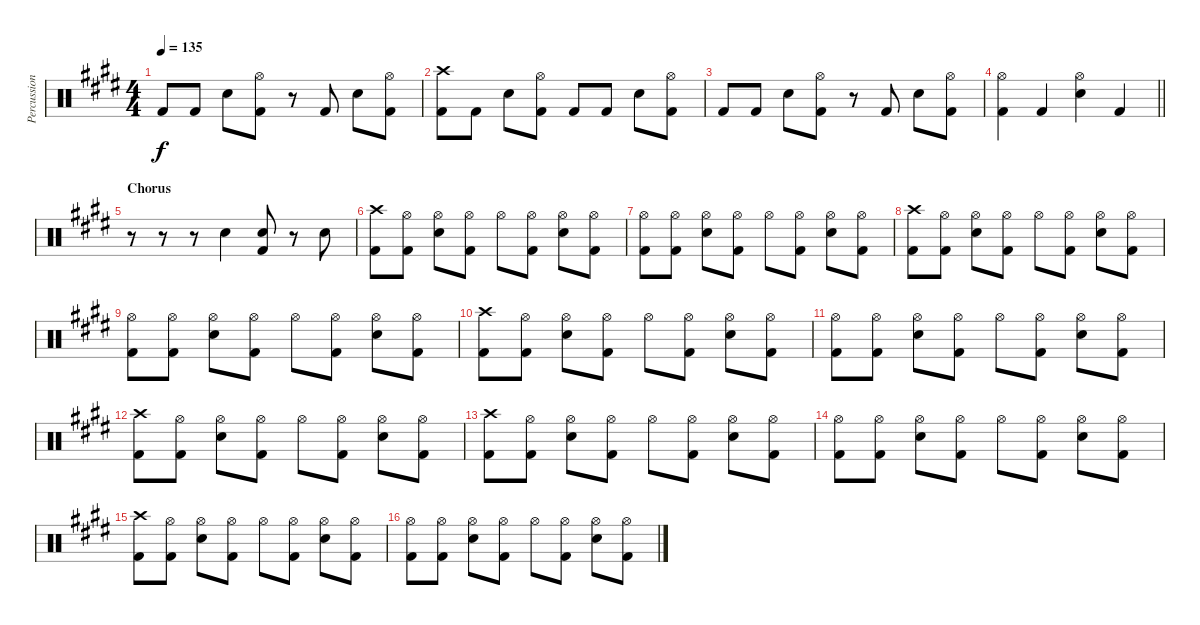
\track ("Percussion" "Percussion") {instrument percussion}
\staff {score}
\articulation defaults
\ts (4 4)
\tempo 135
\clef neutral
\ks e "Kick (hit) 2".8{dy f} "Kick (hit) 2".8 "Electric Snare (hit)".8
("Hi-Hat (open)" "Kick (hit) 2").8 r.8 "Kick (hit) 2".8 "Electric Snare (hit)".8 ("Hi-Hat (open)" "Kick (hit) 2").8 |
("Crash high (hit)" "Kick (hit) 2").8 "Kick (hit) 2".8 "Electric Snare (hit)".8 ("Hi-Hat (open)" "Kick (hit) 2").8 "Kick (hit) 2".8 "Kick (hit) 2".8 "Electric Snare (hit)".8 ("Hi-Hat (open)" "Kick (hit) 2").8 |
"Kick (hit) 2".8 "Kick (hit) 2".8 "Electric Snare (hit)".8 ("Hi-Hat (open)" "Kick (hit) 2").8 r.8 "Kick (hit) 2".8 "Electric Snare (hit)".8 ("Hi-Hat (open)" "Kick (hit) 2").8 |
\barLineRight lightlight
("Hi-Hat (open)" "Kick (hit) 2").4 "Kick (hit) 2".4 ("Hi-Hat (open)" "Electric Snare (hit)").4 "Kick (hit) 2".4 |
\section ("" "Chorus")
r.8 r.8 r.8 "Electric Snare (hit)".4 ("Electric Snare (hit)" "Kick (hit) 2").8 r.8 "Electric Snare (hit)".8 |
("Crash high (hit)" "Kick (hit) 2").8 ("Hi-Hat (open)" "Kick (hit) 2").8 ("Hi-Hat (open)" "Electric Snare (hit)").8 ("Hi-Hat (open)" "Kick (hit) 2").8 "Hi-Hat (open)".8 ("Hi-Hat (open)" "Kick (hit) 2").8 ("Hi-Hat (open)" "Electric Snare (hit)").8 ("Hi-Hat (open)" "Kick (hit) 2").8 |
("Hi-Hat (open)" "Kick (hit) 2").8 ("Hi-Hat (open)" "Kick (hit) 2").8 ("Hi-Hat (open)" "Electric Snare (hit)").8 ("Hi-Hat (open)" "Kick (hit) 2").8 "Hi-Hat (open)".8 ("Hi-Hat (open)" "Kick (hit) 2").8 ("Hi-Hat (open)" "Electric Snare (hit)").8 ("Hi-Hat (open)" "Kick (hit) 2").8 |
("Crash high (hit)" "Kick (hit) 2").8 ("Hi-Hat (open)" "Kick (hit) 2").8 ("Hi-Hat (open)" "Electric Snare (hit)").8 ("Hi-Hat (open)" "Kick (hit) 2").8 "Hi-Hat (open)".8 ("Hi-Hat (open)" "Kick (hit) 2").8 ("Hi-Hat (open)" "Electric Snare (hit)").8 ("Hi-Hat (open)" "Kick (hit) 2").8 |
("Hi-Hat (open)" "Kick (hit) 2").8 ("Hi-Hat (open)" "Kick (hit) 2").8 ("Hi-Hat (open)" "Electric Snare (hit)").8 ("Hi-Hat (open)" "Kick (hit) 2").8 "Hi-Hat (open)".8 ("Hi-Hat (open)" "Kick (hit) 2").8 ("Hi-Hat (open)" "Electric Snare (hit)").8 ("Hi-Hat (open)" "Kick (hit) 2").8 |
("Crash high (hit)" "Kick (hit) 2").8 ("Hi-Hat (open)" "Kick (hit) 2").8 ("Hi-Hat (open)" "Electric Snare (hit)").8 ("Hi-Hat (open)" "Kick (hit) 2").8 "Hi-Hat (open)".8 ("Hi-Hat (open)" "Kick (hit) 2").8 ("Hi-Hat (open)" "Electric Snare (hit)").8 ("Hi-Hat (open)" "Kick (hit) 2").8 |
("Hi-Hat (open)" "Kick (hit) 2").8 ("Hi-Hat (open)" "Kick (hit) 2").8 ("Hi-Hat (open)" "Electric Snare (hit)").8 ("Hi-Hat (open)" "Kick (hit) 2").8 "Hi-Hat (open)".8 ("Hi-Hat (open)" "Kick (hit) 2").8 ("Hi-Hat (open)" "Electric Snare (hit)").8 ("Hi-Hat (open)" "Kick (hit) 2").8 |
("Crash high (hit)" "Kick (hit) 2").8 ("Hi-Hat (open)" "Kick (hit) 2").8 ("Hi-Hat (open)" "Electric Snare (hit)").8 ("Hi-Hat (open)" "Kick (hit) 2").8 "Hi-Hat (open)".8 ("Hi-Hat (open)" "Kick (hit) 2").8 ("Hi-Hat (open)" "Electric Snare (hit)").8 ("Hi-Hat (open)" "Kick (hit) 2").8 |
("Crash high (hit)" "Kick (hit) 2").8 ("Hi-Hat (open)" "Kick (hit) 2").8 ("Hi-Hat (open)" "Electric Snare (hit)").8 ("Hi-Hat (open)" "Kick (hit) 2").8 "Hi-Hat (open)".8 ("Hi-Hat (open)" "Kick (hit) 2").8 ("Hi-Hat (open)" "Electric Snare (hit)").8 ("Hi-Hat (open)" "Kick (hit) 2").8 |
("Hi-Hat (open)" "Kick (hit) 2").8 ("Hi-Hat (open)" "Kick (hit) 2").8 ("Hi-Hat (open)" "Electric Snare (hit)").8 ("Hi-Hat (open)" "Kick (hit) 2").8 "Hi-Hat (open)".8 ("Hi-Hat (open)" "Kick (hit) 2").8 ("Hi-Hat (open)" "Electric Snare (hit)").8 ("Hi-Hat (open)" "Kick (hit) 2").8 |
("Crash high (hit)" "Kick (hit) 2").8 ("Hi-Hat (open)" "Kick (hit) 2").8 ("Hi-Hat (open)" "Electric Snare (hit)").8 ("Hi-Hat (open)" "Kick (hit) 2").8 "Hi-Hat (open)".8 ("Hi-Hat (open)" "Kick (hit) 2").8 ("Hi-Hat (open)" "Electric Snare (hit)").8 ("Hi-Hat (open)" "Kick (hit) 2").8 |
("Hi-Hat (open)" "Kick (hit) 2").8 ("Hi-Hat (open)" "Kick (hit) 2").8 ("Hi-Hat (open)" "Electric Snare (hit)").8 ("Hi-Hat (open)" "Kick (hit) 2").8 "Hi-Hat (open)".8 ("Hi-Hat (open)" "Kick (hit) 2").8 ("Hi-Hat (open)" "Electric Snare (hit)").8 ("Hi-Hat (open)" "Kick (hit) 2").8
